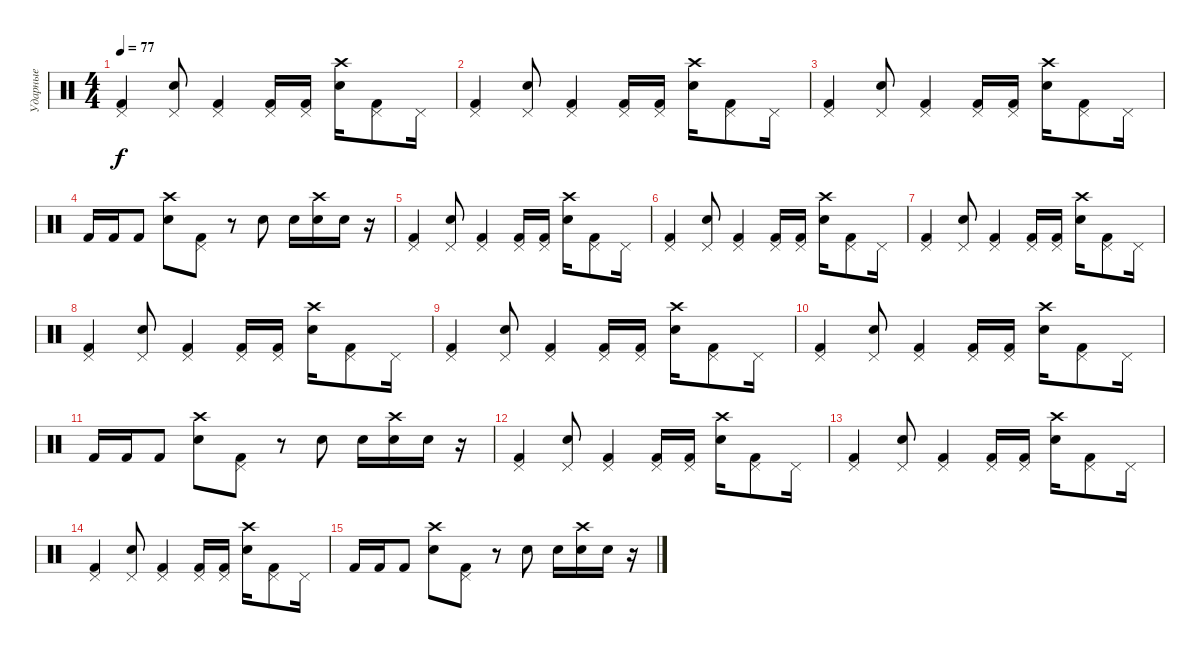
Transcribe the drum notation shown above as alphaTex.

\track ("Ударные" "Ударные") {instrument percussion}
\staff {score}
\articulation defaults
\ts (4 4)
\tempo 77
\clef neutral
\ks c
("Kick (hit) 2" "Pedal Hi-Hat (hit)").4{dy f} ("Snare (hit) 2" "Pedal Hi-Hat (hit)").8 ("Kick (hit) 2" "Pedal Hi-Hat (hit)").4 ("Kick (hit) 2" "Pedal Hi-Hat (hit)").16 ("Kick (hit) 2" "Pedal Hi-Hat (hit)").16 ("Snare (hit) 2" "Crash high (hit)").16 ("Kick (hit) 2" "Pedal Hi-Hat (hit)").8 "Pedal Hi-Hat (hit)".16 |
("Kick (hit) 2" "Pedal Hi-Hat (hit)").4 ("Snare (hit) 2" "Pedal Hi-Hat (hit)").8 ("Kick (hit) 2" "Pedal Hi-Hat (hit)").4 ("Kick (hit) 2" "Pedal Hi-Hat (hit)").16 ("Kick (hit) 2" "Pedal Hi-Hat (hit)").16 ("Snare (hit) 2" "Crash high (hit)").16 ("Kick (hit) 2" "Pedal Hi-Hat (hit)").8 "Pedal Hi-Hat (hit)".16 |
("Kick (hit) 2" "Pedal Hi-Hat (hit)").4 ("Snare (hit) 2" "Pedal Hi-Hat (hit)").8 ("Kick (hit) 2" "Pedal Hi-Hat (hit)").4 ("Kick (hit) 2" "Pedal Hi-Hat (hit)").16 ("Kick (hit) 2" "Pedal Hi-Hat (hit)").16 ("Snare (hit) 2" "Crash high (hit)").16 ("Kick (hit) 2" "Pedal Hi-Hat (hit)").8 "Pedal Hi-Hat (hit)".16 |
"Kick (hit) 2".16 "Kick (hit) 2".16 "Kick (hit) 2".8 ("Snare (hit) 2" "Crash high (hit)").8 ("Kick (hit) 2" "Pedal Hi-Hat (hit)").8 r.8 "Snare (hit) 2".8 "Snare (hit) 2".16 ("Snare (hit) 2" "Crash high (hit)").16 "Snare (hit) 2".16 r.16 |
("Kick (hit) 2" "Pedal Hi-Hat (hit)").4 ("Snare (hit) 2" "Pedal Hi-Hat (hit)").8 ("Kick (hit) 2" "Pedal Hi-Hat (hit)").4 ("Kick (hit) 2" "Pedal Hi-Hat (hit)").16 ("Kick (hit) 2" "Pedal Hi-Hat (hit)").16 ("Snare (hit) 2" "Crash high (hit)").16 ("Kick (hit) 2" "Pedal Hi-Hat (hit)").8 "Pedal Hi-Hat (hit)".16 |
("Kick (hit) 2" "Pedal Hi-Hat (hit)").4 ("Snare (hit) 2" "Pedal Hi-Hat (hit)").8 ("Kick (hit) 2" "Pedal Hi-Hat (hit)").4 ("Kick (hit) 2" "Pedal Hi-Hat (hit)").16 ("Kick (hit) 2" "Pedal Hi-Hat (hit)").16 ("Snare (hit) 2" "Crash high (hit)").16 ("Kick (hit) 2" "Pedal Hi-Hat (hit)").8 "Pedal Hi-Hat (hit)".16 |
("Kick (hit) 2" "Pedal Hi-Hat (hit)").4 ("Snare (hit) 2" "Pedal Hi-Hat (hit)").8 ("Kick (hit) 2" "Pedal Hi-Hat (hit)").4 ("Kick (hit) 2" "Pedal Hi-Hat (hit)").16 ("Kick (hit) 2" "Pedal Hi-Hat (hit)").16 ("Snare (hit) 2" "Crash high (hit)").16 ("Kick (hit) 2" "Pedal Hi-Hat (hit)").8 "Pedal Hi-Hat (hit)".16 |
("Kick (hit) 2" "Pedal Hi-Hat (hit)").4 ("Snare (hit) 2" "Pedal Hi-Hat (hit)").8 ("Kick (hit) 2" "Pedal Hi-Hat (hit)").4 ("Kick (hit) 2" "Pedal Hi-Hat (hit)").16 ("Kick (hit) 2" "Pedal Hi-Hat (hit)").16 ("Snare (hit) 2" "Crash high (hit)").16 ("Kick (hit) 2" "Pedal Hi-Hat (hit)").8 "Pedal Hi-Hat (hit)".16 |
("Kick (hit) 2" "Pedal Hi-Hat (hit)").4 ("Snare (hit) 2" "Pedal Hi-Hat (hit)").8 ("Kick (hit) 2" "Pedal Hi-Hat (hit)").4 ("Kick (hit) 2" "Pedal Hi-Hat (hit)").16 ("Kick (hit) 2" "Pedal Hi-Hat (hit)").16 ("Snare (hit) 2" "Crash high (hit)").16 ("Kick (hit) 2" "Pedal Hi-Hat (hit)").8 "Pedal Hi-Hat (hit)".16 |
("Kick (hit) 2" "Pedal Hi-Hat (hit)").4 ("Snare (hit) 2" "Pedal Hi-Hat (hit)").8 ("Kick (hit) 2" "Pedal Hi-Hat (hit)").4 ("Kick (hit) 2" "Pedal Hi-Hat (hit)").16 ("Kick (hit) 2" "Pedal Hi-Hat (hit)").16 ("Snare (hit) 2" "Crash high (hit)").16 ("Kick (hit) 2" "Pedal Hi-Hat (hit)").8 "Pedal Hi-Hat (hit)".16 |
"Kick (hit) 2".16 "Kick (hit) 2".16 "Kick (hit) 2".8 ("Snare (hit) 2" "Crash high (hit)").8 ("Kick (hit) 2" "Pedal Hi-Hat (hit)").8 r.8 "Snare (hit) 2".8 "Snare (hit) 2".16 ("Snare (hit) 2" "Crash high (hit)").16 "Snare (hit) 2".16 r.16 |
("Kick (hit) 2" "Pedal Hi-Hat (hit)").4 ("Snare (hit) 2" "Pedal Hi-Hat (hit)").8 ("Kick (hit) 2" "Pedal Hi-Hat (hit)").4 ("Kick (hit) 2" "Pedal Hi-Hat (hit)").16 ("Kick (hit) 2" "Pedal Hi-Hat (hit)").16 ("Snare (hit) 2" "Crash high (hit)").16 ("Kick (hit) 2" "Pedal Hi-Hat (hit)").8 "Pedal Hi-Hat (hit)".16 |
("Kick (hit) 2" "Pedal Hi-Hat (hit)").4 ("Snare (hit) 2" "Pedal Hi-Hat (hit)").8 ("Kick (hit) 2" "Pedal Hi-Hat (hit)").4 ("Kick (hit) 2" "Pedal Hi-Hat (hit)").16 ("Kick (hit) 2" "Pedal Hi-Hat (hit)").16 ("Snare (hit) 2" "Crash high (hit)").16 ("Kick (hit) 2" "Pedal Hi-Hat (hit)").8 "Pedal Hi-Hat (hit)".16 |
("Kick (hit) 2" "Pedal Hi-Hat (hit)").4 ("Snare (hit) 2" "Pedal Hi-Hat (hit)").8 ("Kick (hit) 2" "Pedal Hi-Hat (hit)").4 ("Kick (hit) 2" "Pedal Hi-Hat (hit)").16 ("Kick (hit) 2" "Pedal Hi-Hat (hit)").16 ("Snare (hit) 2" "Crash high (hit)").16 ("Kick (hit) 2" "Pedal Hi-Hat (hit)").8 "Pedal Hi-Hat (hit)".16 |
"Kick (hit) 2".16 "Kick (hit) 2".16 "Kick (hit) 2".8 ("Snare (hit) 2" "Crash high (hit)").8 ("Kick (hit) 2" "Pedal Hi-Hat (hit)").8 r.8 "Snare (hit) 2".8 "Snare (hit) 2".16 ("Snare (hit) 2" "Crash high (hit)").16 "Snare (hit) 2".16 r.16
